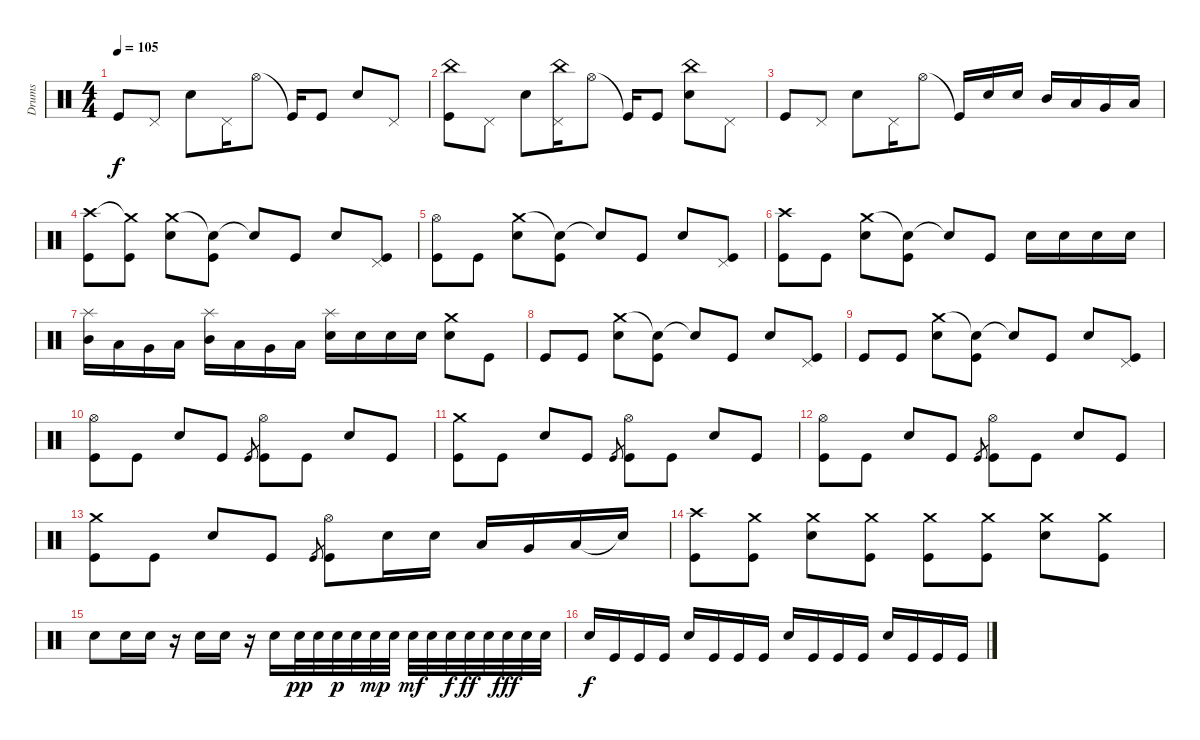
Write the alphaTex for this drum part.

\track ("Drums" "Drums") {instrument percussion}
\staff {score}
\articulation defaults
\ts (4 4)
\tempo 105
\clef neutral
\ks c "Kick (hit)".8{dy f} "Pedal Hi-Hat (hit)".8 "Snare (hit) 2".8 "Pedal Hi-Hat (hit)".16 "Hi-Hat (open)".8 "Kick (hit)"{t}.16 "Kick (hit)".8 "Snare (hit) 2".8 "Pedal Hi-Hat (hit)".8
|
("China (hit)" "Kick (hit)").8 "Pedal Hi-Hat (hit)".8 "Snare (hit) 2".8 ("China (hit)" "Pedal Hi-Hat (hit)").16 "Hi-Hat (open)".8 "Kick (hit)"{t}.16 "Kick (hit)".8 ("China (hit)" "Snare (hit) 2").8 "Pedal Hi-Hat (hit)".8 |
"Kick (hit)".8 "Pedal Hi-Hat (hit)".8 "Snare (hit) 2".8 "Pedal Hi-Hat (hit)".16 "Hi-Hat (open)".8 "Kick (hit)"{t}.16 "Snare (hit) 2".16 "Snare (hit) 2".16 "Mid Tom (hit)".16 "Low Tom (hit)".16 "Very Low Tom (hit)".16 "Low Floor Tom (hit)".16 |
("Crash high (hit)" "Kick (hit)").8 ("Crash medium (hit)"{t} "Kick (hit)").8 ("Crash medium (hit)" "Snare (hit) 2").8 ("Snare (hit)"{t} "Kick (hit)").8 "Snare (hit)"{t}.8 "Kick (hit)".8 "Snare (hit) 2".8 ("Kick (hit)" "Pedal Hi-Hat (hit)").8 |
("Hi-Hat (open)" "Kick (hit)").8 "Kick (hit)".8 ("Crash medium (hit)" "Snare (hit) 2").8 ("Snare (hit)"{t} "Kick (hit)").8 "Snare (hit)"{t}.8 "Kick (hit)".8 "Snare (hit) 2".8 ("Kick (hit)" "Pedal Hi-Hat (hit)").8 |
("Crash high (hit)" "Kick (hit)").8 "Kick (hit)".8 ("Crash medium (hit)" "Snare (hit) 2").8 ("Snare (hit)"{t} "Kick (hit)").8 "Snare (hit)"{t}.8 "Kick (hit)".8 "Snare (hit) 2".16 "Snare (hit) 2".16 "Snare (hit) 2".16 "Snare (hit) 2".16 |
("Splash (hit)" "Mid Tom (hit)").16 "Low Tom (hit)".16 "Very Low Tom (hit)".16 "Low Floor Tom (hit)".16 ("Splash (hit)" "Mid Tom (hit)").16 "Low Tom (hit)".16 "Very Low Tom (hit)".16 "Low Floor Tom (hit)".16 ("Splash (hit)" "Snare (hit) 2").16 "Snare (hit) 2".16 "Snare (hit) 2".16 "Snare (hit) 2".16 ("Crash medium (hit)" "Snare (hit) 2").8 "Kick (hit)".8 |
"Kick (hit)".8 "Kick (hit)".8 ("Crash medium (hit)" "Snare (hit) 2").8 ("Snare (hit)"{t} "Kick (hit)").8 "Snare (hit)"{t}.8 "Kick (hit)".8 "Snare (hit) 2".8 ("Kick (hit)" "Pedal Hi-Hat (hit)").8 |
"Kick (hit)".8 "Kick (hit)".8 ("Crash medium (hit)" "Snare (hit) 2").8 ("Snare (hit)"{t} "Kick (hit)").8 "Snare (hit)"{t}.8 "Kick (hit)".8 "Snare (hit) 2".8 ("Kick (hit)" "Pedal Hi-Hat (hit)").8 |
("Hi-Hat (open)" "Kick (hit)").8 "Kick (hit)".8 "Snare (hit) 2".8 "Kick (hit)".8 "Kick (hit)".8{gr} ("Hi-Hat (open)" "Kick (hit)").8 "Kick (hit)".8 "Snare (hit) 2".8 "Kick (hit)".8 |
("Crash medium (hit)" "Kick (hit)").8 "Kick (hit)".8 "Snare (hit) 2".8 "Kick (hit)".8 "Kick (hit)".8{gr} ("Hi-Hat (open)" "Kick (hit)").8 "Kick (hit)".8 "Snare (hit) 2".8 "Kick (hit)".8 |
("Hi-Hat (open)" "Kick (hit)").8 "Kick (hit)".8 "Snare (hit) 2".8 "Kick (hit)".8 "Kick (hit)".8{gr} ("Hi-Hat (open)" "Kick (hit)").8 "Kick (hit)".8 "Snare (hit) 2".8 "Kick (hit)".8 |
("Crash medium (hit)" "Kick (hit)").8 "Kick (hit)".8 "Snare (hit) 2".8 "Kick (hit)".8 "Kick (hit)".8{gr} ("Hi-Hat (open)" "Kick (hit)").8 "Snare (hit) 2".16 "Snare (hit) 2".16 "Low Tom (hit)".16 "Very Low Tom (hit)".16 "Low Floor Tom (hit)".16 "Snare (hit)"{t}.16 |
("Crash high (hit)" "Kick (hit)").8 ("Crash medium (hit)" "Kick (hit)").8 ("Crash medium (hit)" "Snare (hit) 2").8 ("Crash medium (hit)" "Kick (hit)").8 ("Crash medium (hit)" "Kick (hit)").8 ("Crash medium (hit)" "Kick (hit)").8 ("Crash medium (hit)" "Snare (hit) 2").8 ("Crash medium (hit)" "Kick (hit)").8 |
"Snare (hit) 2".8 "Snare (hit) 2".16 "Snare (hit) 2".16 r.16 "Snare (hit) 2".16 "Snare (hit) 2".16 r.16 "Snare (hit) 2".16 "Snare (hit) 2".32{dy pp} "Snare (hit) 2".32 "Snare (hit) 2".32{dy p} "Snare (hit) 2".32 "Snare (hit) 2".32{dy mp} "Snare (hit) 2".32 "Snare (hit) 2".32{dy mf} "Snare (hit) 2".32 "Snare (hit) 2".32{dy f} "Snare (hit) 2".32{dy ff} "Snare (hit) 2".32 "Snare (hit) 2".32{dy fff} "Snare (hit) 2".32 "Snare (hit) 2".32 |
"Snare (hit) 2".16{dy f} "Kick (hit)".16 "Kick (hit)".16 "Kick (hit)".16 "Snare (hit) 2".16 "Kick (hit)".16 "Kick (hit)".16 "Kick (hit)".16 "Snare (hit) 2".16 "Kick (hit)".16 "Kick (hit)".16 "Kick (hit)".16 "Snare (hit) 2".16 "Kick (hit)".16 "Kick (hit)".16 "Kick (hit)".16
